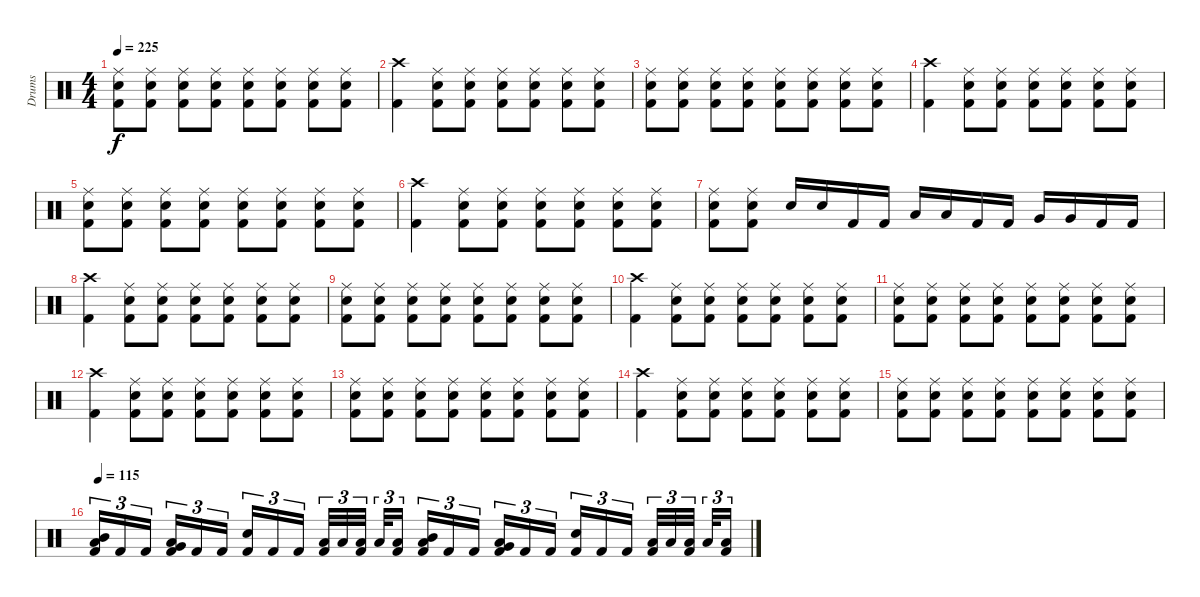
\track ("Drums" "Drums") {instrument percussion}
\staff {score}
\articulation defaults
\ts (4 4)
\tempo 225
\clef neutral
\ks c
("Ride (middle)" "Electric Snare (hit)" "Kick (hit) 2").8{dy f} ("Ride (middle)" "Electric Snare (hit)" "Kick (hit) 2").8 ("Ride (middle)" "Electric Snare (hit)" "Kick (hit) 2").8 ("Ride (middle)" "Electric Snare (hit)" "Kick (hit) 2").8 ("Ride (middle)" "Electric Snare (hit)" "Kick (hit) 2").8 ("Ride (middle)" "Electric Snare (hit)" "Kick (hit) 2").8 ("Ride (middle)" "Electric Snare (hit)" "Kick (hit) 2").8 ("Ride (middle)" "Electric Snare (hit)" "Kick (hit) 2").8 |
("Crash high (hit)" "Kick (hit) 2").4 ("Ride (middle)" "Electric Snare (hit)" "Kick (hit) 2").8 ("Ride (middle)" "Electric Snare (hit)" "Kick (hit) 2").8 ("Ride (middle)" "Electric Snare (hit)" "Kick (hit) 2").8 ("Ride (middle)" "Electric Snare (hit)" "Kick (hit) 2").8 ("Ride (middle)" "Electric Snare (hit)" "Kick (hit) 2").8 ("Ride (middle)" "Electric Snare (hit)" "Kick (hit) 2").8 |
("Ride (middle)" "Electric Snare (hit)" "Kick (hit) 2").8 ("Ride (middle)" "Electric Snare (hit)" "Kick (hit) 2").8 ("Ride (middle)" "Electric Snare (hit)" "Kick (hit) 2").8 ("Ride (middle)" "Electric Snare (hit)" "Kick (hit) 2").8 ("Ride (middle)" "Electric Snare (hit)" "Kick (hit) 2").8 ("Ride (middle)" "Electric Snare (hit)" "Kick (hit) 2").8 ("Ride (middle)" "Electric Snare (hit)" "Kick (hit) 2").8 ("Ride (middle)" "Electric Snare (hit)" "Kick (hit) 2").8 |
("Crash high (hit)" "Kick (hit) 2").4 ("Ride (middle)" "Electric Snare (hit)" "Kick (hit) 2").8 ("Ride (middle)" "Electric Snare (hit)" "Kick (hit) 2").8 ("Ride (middle)" "Electric Snare (hit)" "Kick (hit) 2").8 ("Ride (middle)" "Electric Snare (hit)" "Kick (hit) 2").8 ("Ride (middle)" "Electric Snare (hit)" "Kick (hit) 2").8 ("Ride (middle)" "Electric Snare (hit)" "Kick (hit) 2").8 |
("Ride (middle)" "Electric Snare (hit)" "Kick (hit) 2").8 ("Ride (middle)" "Electric Snare (hit)" "Kick (hit) 2").8 ("Ride (middle)" "Electric Snare (hit)" "Kick (hit) 2").8 ("Ride (middle)" "Electric Snare (hit)" "Kick (hit) 2").8 ("Ride (middle)" "Electric Snare (hit)" "Kick (hit) 2").8 ("Ride (middle)" "Electric Snare (hit)" "Kick (hit) 2").8 ("Ride (middle)" "Electric Snare (hit)" "Kick (hit) 2").8 ("Ride (middle)" "Electric Snare (hit)" "Kick (hit) 2").8 |
("Crash high (hit)" "Kick (hit) 2").4 ("Ride (middle)" "Electric Snare (hit)" "Kick (hit) 2").8 ("Ride (middle)" "Electric Snare (hit)" "Kick (hit) 2").8 ("Ride (middle)" "Electric Snare (hit)" "Kick (hit) 2").8 ("Ride (middle)" "Electric Snare (hit)" "Kick (hit) 2").8 ("Ride (middle)" "Electric Snare (hit)" "Kick (hit) 2").8 ("Ride (middle)" "Electric Snare (hit)" "Kick (hit) 2").8 |
("Ride (middle)" "Electric Snare (hit)" "Kick (hit) 2").8 ("Ride (middle)" "Electric Snare (hit)" "Kick (hit) 2").8 "Electric Snare (hit)".16 "Electric Snare (hit)".16 "Kick (hit) 2".16 "Kick (hit) 2".16 "Low Tom (hit)".16 "Low Tom (hit)".16 "Kick (hit) 2".16 "Kick (hit) 2".16 "Very Low Tom (hit)".16 "Very Low Tom (hit)".16 "Kick (hit) 2".16 "Kick (hit) 2".16 |
("Crash high (hit)" "Kick (hit) 2").4 ("Ride (middle)" "Electric Snare (hit)" "Kick (hit) 2").8 ("Ride (middle)" "Electric Snare (hit)" "Kick (hit) 2").8 ("Ride (middle)" "Electric Snare (hit)" "Kick (hit) 2").8 ("Ride (middle)" "Electric Snare (hit)" "Kick (hit) 2").8 ("Ride (middle)" "Electric Snare (hit)" "Kick (hit) 2").8 ("Ride (middle)" "Electric Snare (hit)" "Kick (hit) 2").8 |
("Ride (middle)" "Electric Snare (hit)" "Kick (hit) 2").8 ("Ride (middle)" "Electric Snare (hit)" "Kick (hit) 2").8 ("Ride (middle)" "Electric Snare (hit)" "Kick (hit) 2").8 ("Ride (middle)" "Electric Snare (hit)" "Kick (hit) 2").8 ("Ride (middle)" "Electric Snare (hit)" "Kick (hit) 2").8 ("Ride (middle)" "Electric Snare (hit)" "Kick (hit) 2").8 ("Ride (middle)" "Electric Snare (hit)" "Kick (hit) 2").8 ("Ride (middle)" "Electric Snare (hit)" "Kick (hit) 2").8 |
("Crash high (hit)" "Kick (hit) 2").4 ("Ride (middle)" "Electric Snare (hit)" "Kick (hit) 2").8 ("Ride (middle)" "Electric Snare (hit)" "Kick (hit) 2").8 ("Ride (middle)" "Electric Snare (hit)" "Kick (hit) 2").8 ("Ride (middle)" "Electric Snare (hit)" "Kick (hit) 2").8 ("Ride (middle)" "Electric Snare (hit)" "Kick (hit) 2").8 ("Ride (middle)" "Electric Snare (hit)" "Kick (hit) 2").8 |
("Ride (middle)" "Electric Snare (hit)" "Kick (hit) 2").8 ("Ride (middle)" "Electric Snare (hit)" "Kick (hit) 2").8 ("Ride (middle)" "Electric Snare (hit)" "Kick (hit) 2").8 ("Ride (middle)" "Electric Snare (hit)" "Kick (hit) 2").8 ("Ride (middle)" "Electric Snare (hit)" "Kick (hit) 2").8 ("Ride (middle)" "Electric Snare (hit)" "Kick (hit) 2").8 ("Ride (middle)" "Electric Snare (hit)" "Kick (hit) 2").8 ("Ride (middle)" "Electric Snare (hit)" "Kick (hit) 2").8 |
("Crash high (hit)" "Kick (hit) 2").4 ("Ride (middle)" "Electric Snare (hit)" "Kick (hit) 2").8 ("Ride (middle)" "Electric Snare (hit)" "Kick (hit) 2").8 ("Ride (middle)" "Electric Snare (hit)" "Kick (hit) 2").8 ("Ride (middle)" "Electric Snare (hit)" "Kick (hit) 2").8 ("Ride (middle)" "Electric Snare (hit)" "Kick (hit) 2").8 ("Ride (middle)" "Electric Snare (hit)" "Kick (hit) 2").8 |
("Ride (middle)" "Electric Snare (hit)" "Kick (hit) 2").8 ("Ride (middle)" "Electric Snare (hit)" "Kick (hit) 2").8 ("Ride (middle)" "Electric Snare (hit)" "Kick (hit) 2").8 ("Ride (middle)" "Electric Snare (hit)" "Kick (hit) 2").8 ("Ride (middle)" "Electric Snare (hit)" "Kick (hit) 2").8 ("Ride (middle)" "Electric Snare (hit)" "Kick (hit) 2").8 ("Ride (middle)" "Electric Snare (hit)" "Kick (hit) 2").8 ("Ride (middle)" "Electric Snare (hit)" "Kick (hit) 2").8 |
("Crash high (hit)" "Kick (hit) 2").4 ("Ride (middle)" "Electric Snare (hit)" "Kick (hit) 2").8 ("Ride (middle)" "Electric Snare (hit)" "Kick (hit) 2").8 ("Ride (middle)" "Electric Snare (hit)" "Kick (hit) 2").8 ("Ride (middle)" "Electric Snare (hit)" "Kick (hit) 2").8 ("Ride (middle)" "Electric Snare (hit)" "Kick (hit) 2").8 ("Ride (middle)" "Electric Snare (hit)" "Kick (hit) 2").8 |
("Ride (middle)" "Electric Snare (hit)" "Kick (hit) 2").8 ("Ride (middle)" "Electric Snare (hit)" "Kick (hit) 2").8 ("Ride (middle)" "Electric Snare (hit)" "Kick (hit) 2").8 ("Ride (middle)" "Electric Snare (hit)" "Kick (hit) 2").8 ("Ride (middle)" "Electric Snare (hit)" "Kick (hit) 2").8 ("Ride (middle)" "Electric Snare (hit)" "Kick (hit) 2").8 ("Ride (middle)" "Electric Snare (hit)" "Kick (hit) 2").8 ("Ride (middle)" "Electric Snare (hit)" "Kick (hit) 2").8 |
\tempo 115
("Mid Tom (hit)" "Low Tom (hit)" "Kick (hit) 2").16{tu (3 2)} "Kick (hit) 2".16{tu (3 2)} "Kick (hit) 2".16{tu (3 2) beam splitsecondary} ("Low Tom (hit)" "Very Low Tom (hit)" "Kick (hit) 2").16{tu (3 2)} "Kick (hit) 2".16{tu (3 2)} "Kick (hit) 2".16{tu (3 2)} ("Electric Snare (hit)" "Kick (hit) 2").16{tu (3 2)} "Kick (hit) 2".16{tu (3 2)} "Kick (hit) 2".16{tu (3 2) beam splitsecondary} ("Low Tom (hit)" "Kick (hit) 2").32{tu (3 2)} "Low Tom (hit)".32{tu (3 2)} ("Low Tom (hit)" "Kick (hit) 2").32{tu (3 2) beam splitsecondary} "Low Tom (hit)".32{tu (3 2)} ("Low Tom (hit)" "Kick (hit) 2").16{tu (3 2)} ("Mid Tom (hit)" "Low Tom (hit)" "Kick (hit) 2").16{tu (3 2)} "Kick (hit) 2".16{tu (3 2)} "Kick (hit) 2".16{tu (3 2) beam splitsecondary} ("Low Tom (hit)" "Very Low Tom (hit)" "Kick (hit) 2").16{tu (3 2)} "Kick (hit) 2".16{tu (3 2)} "Kick (hit) 2".16{tu (3 2)} ("Electric Snare (hit)" "Kick (hit) 2").16{tu (3 2)} "Kick (hit) 2".16{tu (3 2)} "Kick (hit) 2".16{tu (3 2) beam splitsecondary} ("Low Tom (hit)" "Kick (hit) 2").32{tu (3 2)} "Low Tom (hit)".32{tu (3 2)} ("Low Tom (hit)" "Kick (hit) 2").32{tu (3 2) beam splitsecondary} "Low Tom (hit)".32{tu (3 2)} ("Low Tom (hit)" "Kick (hit) 2").16{tu (3 2)}
